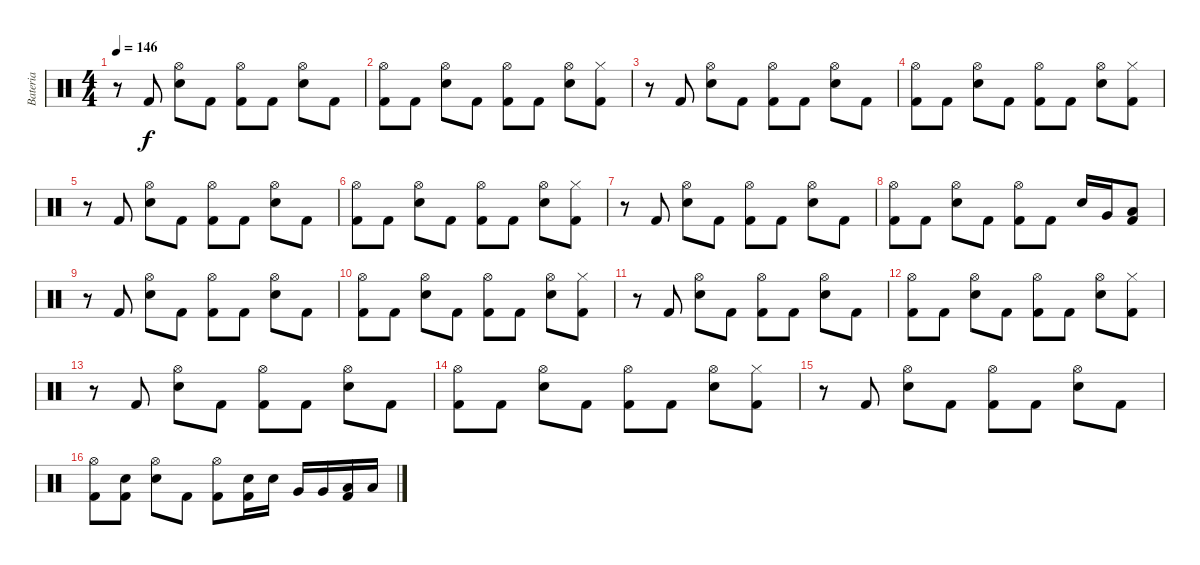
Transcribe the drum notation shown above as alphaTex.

\track ("Bateria" "Bateria") {instrument percussion}
\staff {score}
\articulation defaults
\ts (4 4)
\tempo 146
\clef neutral
\ks c
r.8{dy f} "Kick (hit) 2".8 ("Hi-Hat (open)" "Electric Snare (hit)").8 "Kick (hit) 2".8 ("Hi-Hat (open)" "Kick (hit) 2").8 "Kick (hit) 2".8 ("Hi-Hat (open)" "Electric Snare (hit)").8 "Kick (hit) 2".8 |
("Hi-Hat (open)" "Kick (hit) 2").8 "Kick (hit) 2".8 ("Hi-Hat (open)" "Electric Snare (hit)").8 "Kick (hit) 2".8 ("Hi-Hat (open)" "Kick (hit) 2").8 "Kick (hit) 2".8 ("Hi-Hat (open)" "Electric Snare (hit)").8 ("Hi-Hat (closed)" "Kick (hit) 2").8 |
r.8 "Kick (hit) 2".8 ("Hi-Hat (open)" "Electric Snare (hit)").8 "Kick (hit) 2".8 ("Hi-Hat (open)" "Kick (hit) 2").8 "Kick (hit) 2".8 ("Hi-Hat (open)" "Electric Snare (hit)").8 "Kick (hit) 2".8 |
("Hi-Hat (open)" "Kick (hit) 2").8 "Kick (hit) 2".8 ("Hi-Hat (open)" "Electric Snare (hit)").8 "Kick (hit) 2".8 ("Hi-Hat (open)" "Kick (hit) 2").8 "Kick (hit) 2".8 ("Hi-Hat (open)" "Electric Snare (hit)").8 ("Hi-Hat (closed)" "Kick (hit) 2").8 |
r.8 "Kick (hit) 2".8 ("Hi-Hat (open)" "Electric Snare (hit)").8 "Kick (hit) 2".8 ("Hi-Hat (open)" "Kick (hit) 2").8 "Kick (hit) 2".8 ("Hi-Hat (open)" "Electric Snare (hit)").8 "Kick (hit) 2".8 |
("Hi-Hat (open)" "Kick (hit) 2").8 "Kick (hit) 2".8 ("Hi-Hat (open)" "Electric Snare (hit)").8 "Kick (hit) 2".8 ("Hi-Hat (open)" "Kick (hit) 2").8 "Kick (hit) 2".8 ("Hi-Hat (open)" "Electric Snare (hit)").8 ("Hi-Hat (closed)" "Kick (hit) 2").8 |
r.8 "Kick (hit) 2".8 ("Electric Snare (hit)" "Hi-Hat (open)").8 "Kick (hit) 2".8 ("Kick (hit) 2" "Hi-Hat (open)").8 "Kick (hit) 2".8 ("Electric Snare (hit)" "Hi-Hat (open)").8 "Kick (hit) 2".8 |
("Kick (hit) 2" "Hi-Hat (open)").8 "Kick (hit) 2".8 ("Electric Snare (hit)" "Hi-Hat (open)").8 "Kick (hit) 2".8 ("Kick (hit) 2" "Hi-Hat (open)").8 "Kick (hit) 2".8 "Electric Snare (hit)".16 "Very Low Tom (hit)".16 ("Low Tom (hit)" "Kick (hit) 2").8 |
r.8 "Kick (hit) 2".8 ("Hi-Hat (open)" "Electric Snare (hit)").8 "Kick (hit) 2".8 ("Hi-Hat (open)" "Kick (hit) 2").8 "Kick (hit) 2".8 ("Hi-Hat (open)" "Electric Snare (hit)").8 "Kick (hit) 2".8 |
("Hi-Hat (open)" "Kick (hit) 2").8 "Kick (hit) 2".8 ("Hi-Hat (open)" "Electric Snare (hit)").8 "Kick (hit) 2".8 ("Hi-Hat (open)" "Kick (hit) 2").8 "Kick (hit) 2".8 ("Hi-Hat (open)" "Electric Snare (hit)").8 ("Hi-Hat (closed)" "Kick (hit) 2").8 |
r.8 "Kick (hit) 2".8 ("Hi-Hat (open)" "Electric Snare (hit)").8 "Kick (hit) 2".8 ("Hi-Hat (open)" "Kick (hit) 2").8 "Kick (hit) 2".8 ("Hi-Hat (open)" "Electric Snare (hit)").8 "Kick (hit) 2".8 |
("Hi-Hat (open)" "Kick (hit) 2").8 "Kick (hit) 2".8 ("Hi-Hat (open)" "Electric Snare (hit)").8 "Kick (hit) 2".8 ("Hi-Hat (open)" "Kick (hit) 2").8 "Kick (hit) 2".8 ("Hi-Hat (open)" "Electric Snare (hit)").8 ("Hi-Hat (closed)" "Kick (hit) 2").8 |
r.8 "Kick (hit) 2".8 ("Hi-Hat (open)" "Electric Snare (hit)").8 "Kick (hit) 2".8 ("Hi-Hat (open)" "Kick (hit) 2").8 "Kick (hit) 2".8 ("Hi-Hat (open)" "Electric Snare (hit)").8 "Kick (hit) 2".8 |
("Hi-Hat (open)" "Kick (hit) 2").8 "Kick (hit) 2".8 ("Hi-Hat (open)" "Electric Snare (hit)").8 "Kick (hit) 2".8 ("Hi-Hat (open)" "Kick (hit) 2").8 "Kick (hit) 2".8 ("Hi-Hat (open)" "Electric Snare (hit)").8 ("Hi-Hat (closed)" "Kick (hit) 2").8 |
r.8 "Kick (hit) 2".8 ("Electric Snare (hit)" "Hi-Hat (open)").8 "Kick (hit) 2".8 ("Kick (hit) 2" "Hi-Hat (open)").8 "Kick (hit) 2".8 ("Electric Snare (hit)" "Hi-Hat (open)").8 "Kick (hit) 2".8 |
("Kick (hit) 2" "Hi-Hat (open)").8 ("Electric Snare (hit)" "Kick (hit) 2").8 ("Electric Snare (hit)" "Hi-Hat (open)").8 "Kick (hit) 2".8 ("Kick (hit) 2" "Hi-Hat (open)").8 ("Electric Snare (hit)" "Kick (hit) 2").16 "Electric Snare (hit)".16 "Very Low Tom (hit)".16 "Very Low Tom (hit)".16 ("Low Tom (hit)" "Kick (hit) 2").16 "Low Tom (hit)".16
